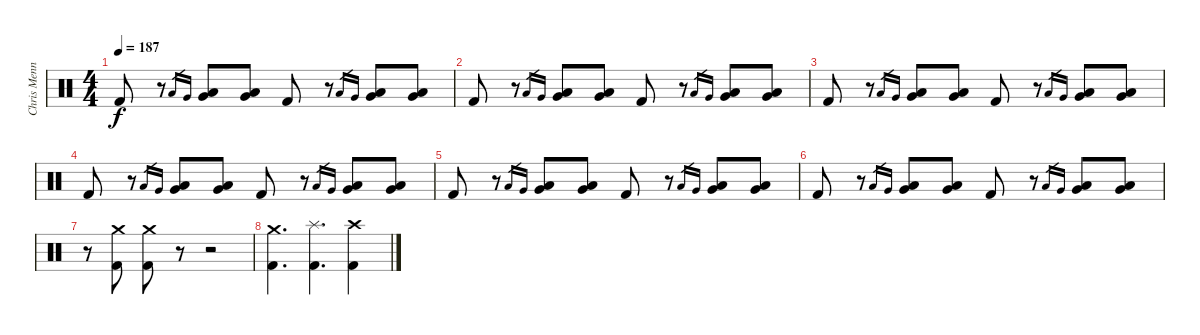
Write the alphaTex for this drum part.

\track ("Chris Menning" "Chris Menn") {instrument percussion}
\staff {score}
\articulation defaults
\ts (4 4)
\tempo 187
\clef neutral
\ks c "Kick (hit) 2".8{dy f}
r.8 "Low Tom (hit)".16{gr} "Very Low Tom (hit)".16{gr} ("Low Tom (hit)" "Very Low Tom (hit)").8 ("Low Tom (hit)" "Very Low Tom (hit)").8 "Kick (hit) 2".8 r.8 "Low Tom (hit)".16{gr} "Very Low Tom (hit)".16{gr} ("Low Tom (hit)" "Very Low Tom (hit)").8 ("Low Tom (hit)" "Very Low Tom (hit)").8 |
"Kick (hit) 2".8 r.8 "Low Tom (hit)".16{gr} "Very Low Tom (hit)".16{gr} ("Low Tom (hit)" "Very Low Tom (hit)").8 ("Low Tom (hit)" "Very Low Tom (hit)").8 "Kick (hit) 2".8 r.8 "Low Tom (hit)".16{gr} "Very Low Tom (hit)".16{gr} ("Low Tom (hit)" "Very Low Tom (hit)").8 ("Low Tom (hit)" "Very Low Tom (hit)").8 |
"Kick (hit) 2".8 r.8 "Low Tom (hit)".16{gr} "Very Low Tom (hit)".16{gr} ("Low Tom (hit)" "Very Low Tom (hit)").8 ("Low Tom (hit)" "Very Low Tom (hit)").8 "Kick (hit) 2".8 r.8 "Low Tom (hit)".16{gr} "Very Low Tom (hit)".16{gr} ("Low Tom (hit)" "Very Low Tom (hit)").8 ("Low Tom (hit)" "Very Low Tom (hit)").8 |
"Kick (hit) 2".8 r.8 "Low Tom (hit)".16{gr} "Very Low Tom (hit)".16{gr} ("Low Tom (hit)" "Very Low Tom (hit)").8 ("Low Tom (hit)" "Very Low Tom (hit)").8 "Kick (hit) 2".8 r.8 "Low Tom (hit)".16{gr} "Very Low Tom (hit)".16{gr} ("Low Tom (hit)" "Very Low Tom (hit)").8 ("Low Tom (hit)" "Very Low Tom (hit)").8 |
"Kick (hit) 2".8 r.8 "Low Tom (hit)".16{gr} "Very Low Tom (hit)".16{gr} ("Low Tom (hit)" "Very Low Tom (hit)").8 ("Low Tom (hit)" "Very Low Tom (hit)").8 "Kick (hit) 2".8 r.8 "Low Tom (hit)".16{gr} "Very Low Tom (hit)".16{gr} ("Low Tom (hit)" "Very Low Tom (hit)").8 ("Low Tom (hit)" "Very Low Tom (hit)").8 |
"Kick (hit) 2".8 r.8 "Low Tom (hit)".16{gr} "Very Low Tom (hit)".16{gr} ("Low Tom (hit)" "Very Low Tom (hit)").8 ("Low Tom (hit)" "Very Low Tom (hit)").8 "Kick (hit) 2".8 r.8 "Low Tom (hit)".16{gr} "Very Low Tom (hit)".16{gr} ("Low Tom (hit)" "Very Low Tom (hit)").8 ("Low Tom (hit)" "Very Low Tom (hit)").8 |
r.8 ("Crash medium (hit)" "Kick (hit) 2").8 ("Crash medium (hit)" "Kick (hit) 2").8 r.8 r.2 |
("Crash medium (hit)" "Kick (hit) 2").4{d} ("Splash (hit)" "Kick (hit) 2").4{d} ("Crash high (hit)" "Kick (hit) 2").4
